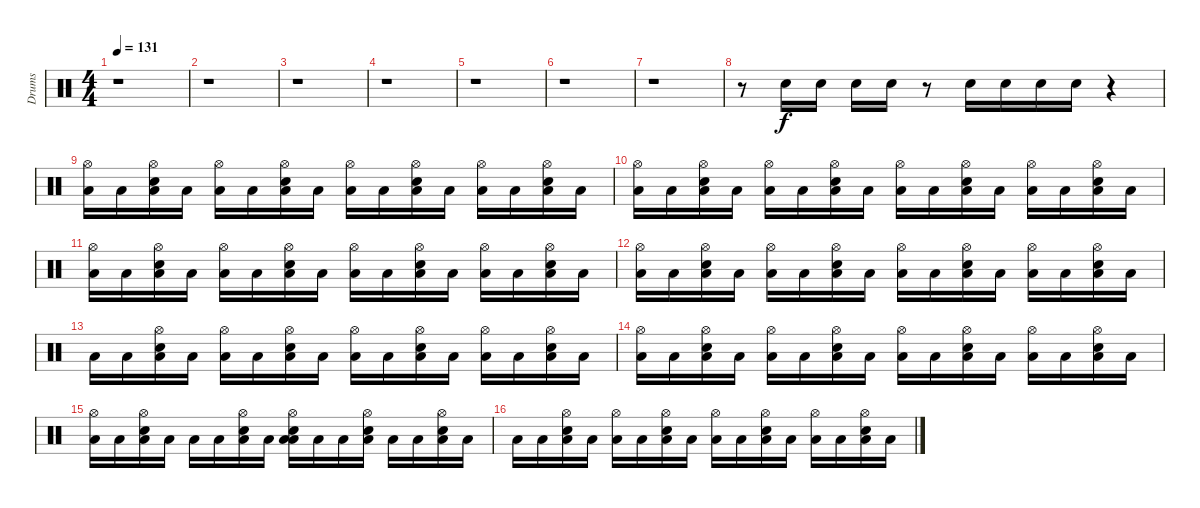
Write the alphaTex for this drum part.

\track ("Drums" "Drums") {instrument percussion}
\staff {score}
\articulation defaults
\ts (4 4)
\tempo 131
\clef neutral
\ks c
r.1{dy f} |
r.1 |
r.1 |
r.1 |
r.1 |
r.1 |
r.1 |
r.8 "Electric Snare (hit)".16 "Electric Snare (hit)".16 "Electric Snare (hit)".16 "Electric Snare (hit)".16 r.8 "Electric Snare (hit)".16 "Electric Snare (hit)".16 "Electric Snare (hit)".16 "Electric Snare (hit)".16 r.4 |
("Hi-Hat (open)" "Low Tom (hit)").16 "Low Tom (hit)".16 ("Hi-Hat (open)" "Electric Snare (hit)" "Low Tom (hit)").16 "Low Tom (hit)".16 ("Hi-Hat (open)" "Low Tom (hit)").16 "Low Tom (hit)".16 ("Hi-Hat (open)" "Electric Snare (hit)" "Low Tom (hit)").16 "Low Tom (hit)".16 ("Hi-Hat (open)" "Low Tom (hit)").16 "Low Tom (hit)".16 ("Hi-Hat (open)" "Electric Snare (hit)" "Low Tom (hit)").16 "Low Tom (hit)".16 ("Hi-Hat (open)" "Low Tom (hit)").16 "Low Tom (hit)".16 ("Hi-Hat (open)" "Electric Snare (hit)" "Low Tom (hit)").16 "Low Tom (hit)".16 |
("Hi-Hat (open)" "Low Tom (hit)").16 "Low Tom (hit)".16 ("Hi-Hat (open)" "Electric Snare (hit)" "Low Tom (hit)").16 "Low Tom (hit)".16 ("Hi-Hat (open)" "Low Tom (hit)").16 "Low Tom (hit)".16 ("Hi-Hat (open)" "Electric Snare (hit)" "Low Tom (hit)").16 "Low Tom (hit)".16 ("Hi-Hat (open)" "Low Tom (hit)").16 "Low Tom (hit)".16 ("Hi-Hat (open)" "Electric Snare (hit)" "Low Tom (hit)").16 "Low Tom (hit)".16 ("Hi-Hat (open)" "Low Tom (hit)").16 "Low Tom (hit)".16 ("Hi-Hat (open)" "Electric Snare (hit)" "Low Tom (hit)").16 "Low Tom (hit)".16 |
("Hi-Hat (open)" "Low Tom (hit)").16 "Low Tom (hit)".16 ("Hi-Hat (open)" "Electric Snare (hit)" "Low Tom (hit)").16 "Low Tom (hit)".16 ("Hi-Hat (open)" "Low Tom (hit)").16 "Low Tom (hit)".16 ("Hi-Hat (open)" "Electric Snare (hit)" "Low Tom (hit)").16 "Low Tom (hit)".16 ("Hi-Hat (open)" "Low Tom (hit)").16 "Low Tom (hit)".16 ("Hi-Hat (open)" "Electric Snare (hit)" "Low Tom (hit)").16 "Low Tom (hit)".16 ("Hi-Hat (open)" "Low Tom (hit)").16 "Low Tom (hit)".16 ("Hi-Hat (open)" "Electric Snare (hit)" "Low Tom (hit)").16 "Low Tom (hit)".16 |
("Hi-Hat (open)" "Low Tom (hit)").16 "Low Tom (hit)".16 ("Hi-Hat (open)" "Electric Snare (hit)" "Low Tom (hit)").16 "Low Tom (hit)".16 ("Hi-Hat (open)" "Low Tom (hit)").16 "Low Tom (hit)".16 ("Hi-Hat (open)" "Electric Snare (hit)" "Low Tom (hit)").16 "Low Tom (hit)".16 ("Hi-Hat (open)" "Low Tom (hit)").16 "Low Tom (hit)".16 ("Hi-Hat (open)" "Electric Snare (hit)" "Low Tom (hit)").16 "Low Tom (hit)".16 ("Hi-Hat (open)" "Low Tom (hit)").16 "Low Tom (hit)".16 ("Hi-Hat (open)" "Electric Snare (hit)" "Low Tom (hit)").16 "Low Tom (hit)".16 |
"Low Tom (hit)".16 "Low Tom (hit)".16 ("Hi-Hat (open)" "Electric Snare (hit)" "Low Tom (hit)").16 "Low Tom (hit)".16 ("Hi-Hat (open)" "Low Tom (hit)").16 "Low Tom (hit)".16 ("Hi-Hat (open)" "Electric Snare (hit)" "Low Tom (hit)").16 "Low Tom (hit)".16 ("Hi-Hat (open)" "Low Tom (hit)").16 "Low Tom (hit)".16 ("Hi-Hat (open)" "Electric Snare (hit)" "Low Tom (hit)").16 "Low Tom (hit)".16 ("Hi-Hat (open)" "Low Tom (hit)").16 "Low Tom (hit)".16 ("Hi-Hat (open)" "Electric Snare (hit)" "Low Tom (hit)").16 "Low Tom (hit)".16 |
("Hi-Hat (open)" "Low Tom (hit)").16 "Low Tom (hit)".16 ("Hi-Hat (open)" "Electric Snare (hit)" "Low Tom (hit)").16 "Low Tom (hit)".16 ("Hi-Hat (open)" "Low Tom (hit)").16 "Low Tom (hit)".16 ("Hi-Hat (open)" "Electric Snare (hit)" "Low Tom (hit)").16 "Low Tom (hit)".16 ("Hi-Hat (open)" "Low Tom (hit)").16 "Low Tom (hit)".16 ("Hi-Hat (open)" "Electric Snare (hit)" "Low Tom (hit)").16 "Low Tom (hit)".16 ("Hi-Hat (open)" "Low Tom (hit)").16 "Low Tom (hit)".16 ("Hi-Hat (open)" "Electric Snare (hit)" "Low Tom (hit)").16 "Low Tom (hit)".16 |
("Hi-Hat (open)" "Low Tom (hit)").16 "Low Tom (hit)".16 ("Hi-Hat (open)" "Electric Snare (hit)" "Low Tom (hit)").16 "Low Tom (hit)".16 "Low Tom (hit)".16 "Low Tom (hit)".16 ("Hi-Hat (open)" "Electric Snare (hit)" "Low Tom (hit)").16 "Low Tom (hit)".16 ("Hi-Hat (open)" "Low Tom (hit)" "Electric Snare (hit)" "Low Tom (hit)").16 "Low Tom (hit)".16 "Low Tom (hit)".16 ("Hi-Hat (open)" "Electric Snare (hit)" "Low Tom (hit)").16 "Low Tom (hit)".16 "Low Tom (hit)".16 ("Hi-Hat (open)" "Electric Snare (hit)" "Low Tom (hit)").16 "Low Tom (hit)".16 |
"Low Tom (hit)".16 "Low Tom (hit)".16 ("Low Tom (hit)" "Electric Snare (hit)" "Hi-Hat (open)").16 "Low Tom (hit)".16 ("Low Tom (hit)" "Hi-Hat (open)").16 "Low Tom (hit)".16 ("Low Tom (hit)" "Electric Snare (hit)" "Hi-Hat (open)").16 "Low Tom (hit)".16 ("Low Tom (hit)" "Hi-Hat (open)").16 "Low Tom (hit)".16 ("Low Tom (hit)" "Electric Snare (hit)" "Hi-Hat (open)").16 "Low Tom (hit)".16 ("Low Tom (hit)" "Hi-Hat (open)").16 "Low Tom (hit)".16 ("Low Tom (hit)" "Electric Snare (hit)" "Hi-Hat (open)").16 "Low Tom (hit)".16
